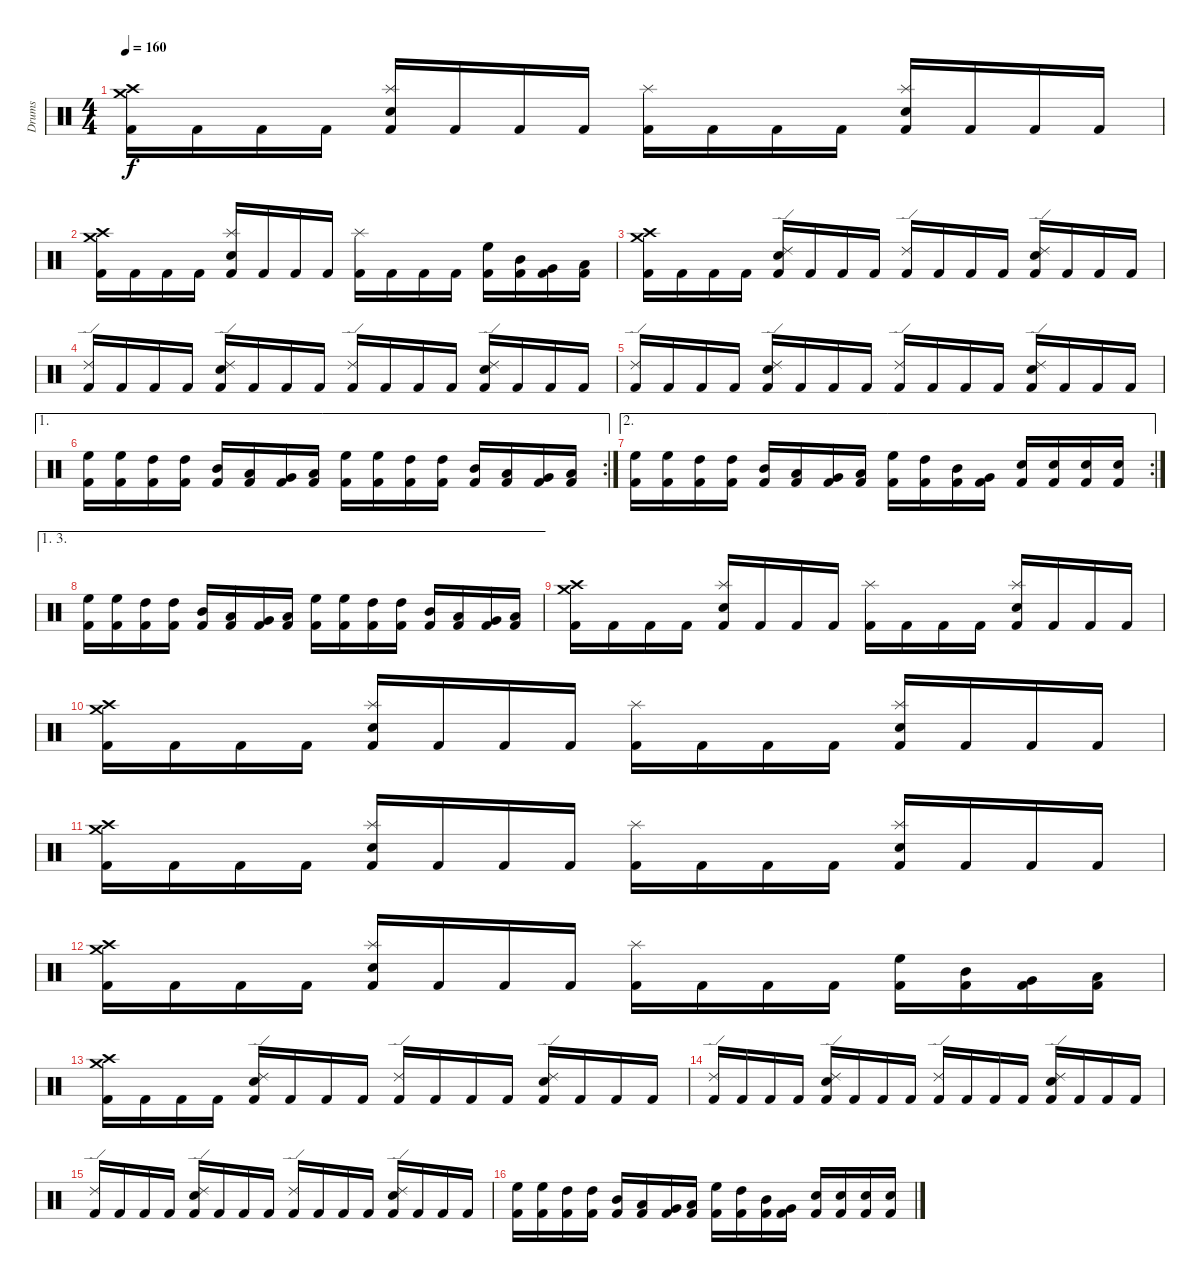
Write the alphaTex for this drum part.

\track ("Drums" "Drums") {instrument percussion}
\staff {score}
\articulation defaults
\ts (4 4)
\tempo 160
\clef neutral
\ks c
("Crash medium (hit)" "Crash high (hit)" "Kick (hit) 2").16{dy f} "Kick (hit) 2".16 "Kick (hit) 2".16 "Kick (hit) 2".16 ("Splash (hit)" "Electric Snare (hit)" "Kick (hit) 2").16 "Kick (hit) 2".16 "Kick (hit) 2".16 "Kick (hit) 2".16 ("Splash (hit)" "Kick (hit) 2").16 "Kick (hit) 2".16 "Kick (hit) 2".16 "Kick (hit) 2".16 ("Splash (hit)" "Electric Snare (hit)" "Kick (hit) 2").16 "Kick (hit) 2".16 "Kick (hit) 2".16 "Kick (hit) 2".16 |
("Crash medium (hit)" "Crash high (hit)" "Kick (hit) 2").16 "Kick (hit) 2".16 "Kick (hit) 2".16 "Kick (hit) 2".16 ("Splash (hit)" "Electric Snare (hit)" "Kick (hit) 2").16 "Kick (hit) 2".16 "Kick (hit) 2".16 "Kick (hit) 2".16 ("Splash (hit)" "Kick (hit) 2").16 "Kick (hit) 2".16 "Kick (hit) 2".16 "Kick (hit) 2".16 ("High Floor Tom (hit)" "Kick (hit) 2").16 ("Mid Tom (hit)" "Kick (hit) 2").16 ("Very Low Tom (hit)" "Kick (hit) 2").16 ("Low Floor Tom (hit)" "Kick (hit) 2").16 |
("Crash medium (hit)" "Crash high (hit)" "Kick (hit) 2").16{volume 16} "Kick (hit) 2".16 "Kick (hit) 2".16 "Kick (hit) 2".16 ("Ride (edge) 2" "Electric Snare (hit)" "Kick (hit) 2").16 "Kick (hit) 2".16 "Kick (hit) 2".16 "Kick (hit) 2".16 ("Ride (edge) 2" "Kick (hit) 2").16 "Kick (hit) 2".16 "Kick (hit) 2".16 "Kick (hit) 2".16 ("Ride (edge) 2" "Electric Snare (hit)" "Kick (hit) 2").16 "Kick (hit) 2".16 "Kick (hit) 2".16 "Kick (hit) 2".16 |
("Ride (edge) 2" "Kick (hit) 2").16 "Kick (hit) 2".16 "Kick (hit) 2".16 "Kick (hit) 2".16 ("Ride (edge) 2" "Electric Snare (hit)" "Kick (hit) 2").16 "Kick (hit) 2".16 "Kick (hit) 2".16 "Kick (hit) 2".16 ("Ride (edge) 2" "Kick (hit) 2").16 "Kick (hit) 2".16 "Kick (hit) 2".16 "Kick (hit) 2".16 ("Ride (edge) 2" "Electric Snare (hit)" "Kick (hit) 2").16 "Kick (hit) 2".16 "Kick (hit) 2".16 "Kick (hit) 2".16 |
("Ride (edge) 2" "Kick (hit) 2").16 "Kick (hit) 2".16 "Kick (hit) 2".16 "Kick (hit) 2".16 ("Ride (edge) 2" "Electric Snare (hit)" "Kick (hit) 2").16 "Kick (hit) 2".16 "Kick (hit) 2".16 "Kick (hit) 2".16 ("Ride (edge) 2" "Kick (hit) 2").16 "Kick (hit) 2".16 "Kick (hit) 2".16 "Kick (hit) 2".16 ("Ride (edge) 2" "Electric Snare (hit)" "Kick (hit) 2").16 "Kick (hit) 2".16 "Kick (hit) 2".16 "Kick (hit) 2".16 |
\ae 1
\rc 2
("High Floor Tom (hit)" "Kick (hit) 2").16 ("High Floor Tom (hit)" "Kick (hit) 2").16 ("High Tom (hit)" "Kick (hit) 2").16 ("High Tom (hit)" "Kick (hit) 2").16 ("Mid Tom (hit)" "Kick (hit) 2").16 ("Low Tom (hit)" "Kick (hit) 2").16 ("Very Low Tom (hit)" "Kick (hit) 2").16 ("Low Floor Tom (hit)" "Kick (hit) 2").16 ("High Floor Tom (hit)" "Kick (hit) 2").16 ("High Floor Tom (hit)" "Kick (hit) 2").16 ("High Tom (hit)" "Kick (hit) 2").16 ("High Tom (hit)" "Kick (hit) 2").16 ("Mid Tom (hit)" "Kick (hit) 2").16 ("Low Tom (hit)" "Kick (hit) 2").16 ("Very Low Tom (hit)" "Kick (hit) 2").16 ("Low Floor Tom (hit)" "Kick (hit) 2").16 |
\ae 2
\rc 2
("High Floor Tom (hit)" "Kick (hit) 2").16 ("High Floor Tom (hit)" "Kick (hit) 2").16 ("High Tom (hit)" "Kick (hit) 2").16 ("High Tom (hit)" "Kick (hit) 2").16 ("Mid Tom (hit)" "Kick (hit) 2").16 ("Low Tom (hit)" "Kick (hit) 2").16 ("Very Low Tom (hit)" "Kick (hit) 2").16 ("Low Floor Tom (hit)" "Kick (hit) 2").16 ("High Floor Tom (hit)" "Kick (hit) 2").16 ("High Tom (hit)" "Kick (hit) 2").16 ("Mid Tom (hit)" "Kick (hit) 2").16 ("Very Low Tom (hit)" "Kick (hit) 2").16 ("Electric Snare (hit)" "Kick (hit) 2").16 ("Electric Snare (hit)" "Kick (hit) 2").16 ("Electric Snare (hit)" "Kick (hit) 2").16 ("Electric Snare (hit)" "Kick (hit) 2").16 |
\ae (1 3)
("High Floor Tom (hit)" "Kick (hit) 2").16 ("High Floor Tom (hit)" "Kick (hit) 2").16 ("High Tom (hit)" "Kick (hit) 2").16 ("High Tom (hit)" "Kick (hit) 2").16 ("Mid Tom (hit)" "Kick (hit) 2").16 ("Low Tom (hit)" "Kick (hit) 2").16 ("Very Low Tom (hit)" "Kick (hit) 2").16 ("Low Floor Tom (hit)" "Kick (hit) 2").16 ("High Floor Tom (hit)" "Kick (hit) 2").16 ("High Floor Tom (hit)" "Kick (hit) 2").16 ("High Tom (hit)" "Kick (hit) 2").16 ("High Tom (hit)" "Kick (hit) 2").16 ("Mid Tom (hit)" "Kick (hit) 2").16 ("Low Tom (hit)" "Kick (hit) 2").16 ("Very Low Tom (hit)" "Kick (hit) 2").16 ("Low Floor Tom (hit)" "Kick (hit) 2").16 |
("Crash medium (hit)" "Crash high (hit)" "Kick (hit) 2").16{volume 16} "Kick (hit) 2".16 "Kick (hit) 2".16 "Kick (hit) 2".16 ("Splash (hit)" "Electric Snare (hit)" "Kick (hit) 2").16 "Kick (hit) 2".16 "Kick (hit) 2".16 "Kick (hit) 2".16 ("Splash (hit)" "Kick (hit) 2").16 "Kick (hit) 2".16 "Kick (hit) 2".16 "Kick (hit) 2".16 ("Splash (hit)" "Electric Snare (hit)" "Kick (hit) 2").16 "Kick (hit) 2".16 "Kick (hit) 2".16 "Kick (hit) 2".16 |
("Crash medium (hit)" "Crash high (hit)" "Kick (hit) 2").16 "Kick (hit) 2".16 "Kick (hit) 2".16 "Kick (hit) 2".16 ("Splash (hit)" "Electric Snare (hit)" "Kick (hit) 2").16 "Kick (hit) 2".16 "Kick (hit) 2".16 "Kick (hit) 2".16 ("Splash (hit)" "Kick (hit) 2").16 "Kick (hit) 2".16 "Kick (hit) 2".16 "Kick (hit) 2".16 ("Splash (hit)" "Electric Snare (hit)" "Kick (hit) 2").16 "Kick (hit) 2".16 "Kick (hit) 2".16 "Kick (hit) 2".16 |
("Crash medium (hit)" "Crash high (hit)" "Kick (hit) 2").16 "Kick (hit) 2".16 "Kick (hit) 2".16 "Kick (hit) 2".16 ("Splash (hit)" "Electric Snare (hit)" "Kick (hit) 2").16 "Kick (hit) 2".16 "Kick (hit) 2".16 "Kick (hit) 2".16 ("Splash (hit)" "Kick (hit) 2").16 "Kick (hit) 2".16 "Kick (hit) 2".16 "Kick (hit) 2".16 ("Splash (hit)" "Electric Snare (hit)" "Kick (hit) 2").16 "Kick (hit) 2".16 "Kick (hit) 2".16 "Kick (hit) 2".16 |
("Crash medium (hit)" "Crash high (hit)" "Kick (hit) 2").16 "Kick (hit) 2".16 "Kick (hit) 2".16 "Kick (hit) 2".16 ("Splash (hit)" "Electric Snare (hit)" "Kick (hit) 2").16 "Kick (hit) 2".16 "Kick (hit) 2".16 "Kick (hit) 2".16 ("Splash (hit)" "Kick (hit) 2").16 "Kick (hit) 2".16 "Kick (hit) 2".16 "Kick (hit) 2".16 ("High Floor Tom (hit)" "Kick (hit) 2").16 ("Mid Tom (hit)" "Kick (hit) 2").16 ("Very Low Tom (hit)" "Kick (hit) 2").16 ("Low Floor Tom (hit)" "Kick (hit) 2").16 |
("Crash medium (hit)" "Crash high (hit)" "Kick (hit) 2").16{volume 16} "Kick (hit) 2".16 "Kick (hit) 2".16 "Kick (hit) 2".16 ("Ride (edge) 2" "Electric Snare (hit)" "Kick (hit) 2").16 "Kick (hit) 2".16 "Kick (hit) 2".16 "Kick (hit) 2".16 ("Ride (edge) 2" "Kick (hit) 2").16 "Kick (hit) 2".16 "Kick (hit) 2".16 "Kick (hit) 2".16 ("Ride (edge) 2" "Electric Snare (hit)" "Kick (hit) 2").16 "Kick (hit) 2".16 "Kick (hit) 2".16 "Kick (hit) 2".16 |
("Ride (edge) 2" "Kick (hit) 2").16 "Kick (hit) 2".16 "Kick (hit) 2".16 "Kick (hit) 2".16 ("Ride (edge) 2" "Electric Snare (hit)" "Kick (hit) 2").16 "Kick (hit) 2".16 "Kick (hit) 2".16 "Kick (hit) 2".16 ("Ride (edge) 2" "Kick (hit) 2").16 "Kick (hit) 2".16 "Kick (hit) 2".16 "Kick (hit) 2".16 ("Ride (edge) 2" "Electric Snare (hit)" "Kick (hit) 2").16 "Kick (hit) 2".16 "Kick (hit) 2".16 "Kick (hit) 2".16 |
("Ride (edge) 2" "Kick (hit) 2").16 "Kick (hit) 2".16 "Kick (hit) 2".16 "Kick (hit) 2".16 ("Ride (edge) 2" "Electric Snare (hit)" "Kick (hit) 2").16 "Kick (hit) 2".16 "Kick (hit) 2".16 "Kick (hit) 2".16 ("Ride (edge) 2" "Kick (hit) 2").16 "Kick (hit) 2".16 "Kick (hit) 2".16 "Kick (hit) 2".16 ("Ride (edge) 2" "Electric Snare (hit)" "Kick (hit) 2").16 "Kick (hit) 2".16 "Kick (hit) 2".16 "Kick (hit) 2".16 |
("High Floor Tom (hit)" "Kick (hit) 2").16 ("High Floor Tom (hit)" "Kick (hit) 2").16 ("High Tom (hit)" "Kick (hit) 2").16 ("High Tom (hit)" "Kick (hit) 2").16 ("Mid Tom (hit)" "Kick (hit) 2").16 ("Low Tom (hit)" "Kick (hit) 2").16 ("Very Low Tom (hit)" "Kick (hit) 2").16 ("Low Floor Tom (hit)" "Kick (hit) 2").16 ("High Floor Tom (hit)" "Kick (hit) 2").16 ("High Tom (hit)" "Kick (hit) 2").16 ("Mid Tom (hit)" "Kick (hit) 2").16 ("Very Low Tom (hit)" "Kick (hit) 2").16 ("Electric Snare (hit)" "Kick (hit) 2").16 ("Electric Snare (hit)" "Kick (hit) 2").16 ("Electric Snare (hit)" "Kick (hit) 2").16 ("Electric Snare (hit)" "Kick (hit) 2").16
